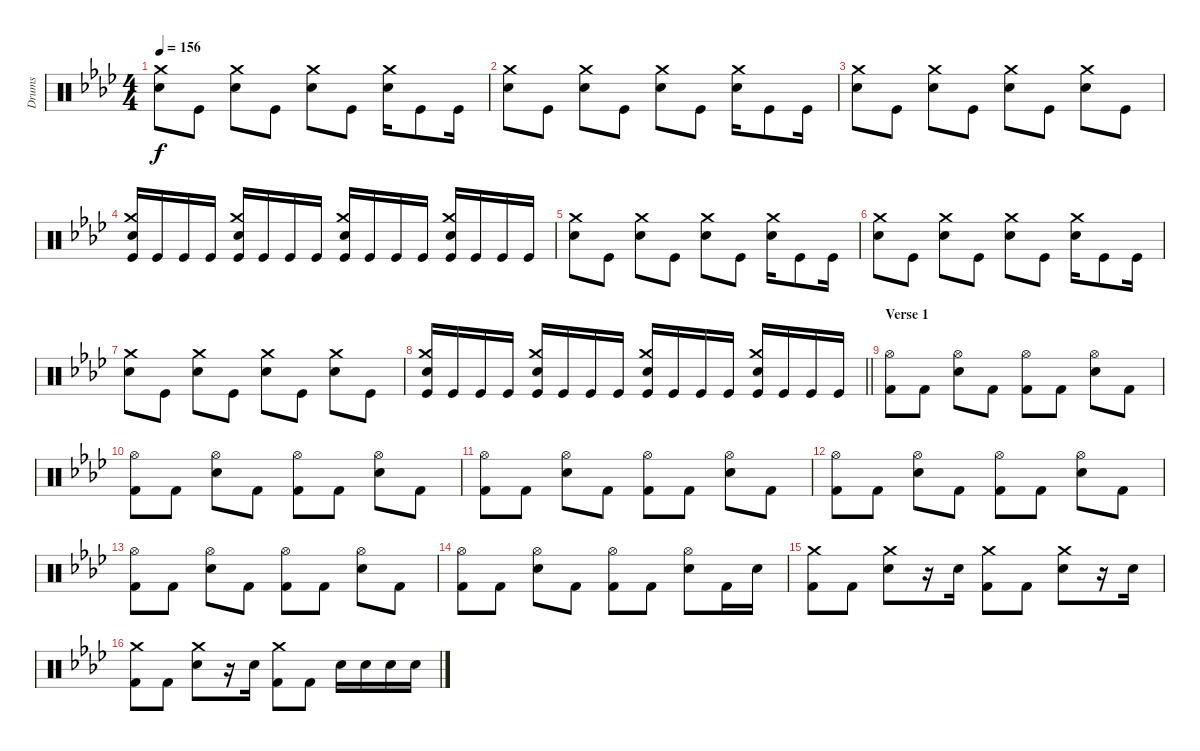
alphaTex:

\track ("Drums" "Drums") {instrument percussion}
\staff {score}
\articulation defaults
\ts (4 4)
\tempo 156
\clef neutral
\ks fminor
("Electric Snare (hit)" "Crash medium (hit)").8{dy f} "Kick (hit)".8 ("Electric Snare (hit)" "Crash medium (hit)").8 "Kick (hit)".8 ("Electric Snare (hit)" "Crash medium (hit)").8 "Kick (hit)".8 ("Electric Snare (hit)" "Crash medium (hit)").16 "Kick (hit)".8 "Kick (hit)".16 |
("Electric Snare (hit)" "Crash medium (hit)").8 "Kick (hit)".8 ("Electric Snare (hit)" "Crash medium (hit)").8 "Kick (hit)".8 ("Electric Snare (hit)" "Crash medium (hit)").8 "Kick (hit)".8 ("Electric Snare (hit)" "Crash medium (hit)").16 "Kick (hit)".8 "Kick (hit)".16 |
("Electric Snare (hit)" "Crash medium (hit)").8 "Kick (hit)".8 ("Electric Snare (hit)" "Crash medium (hit)").8 "Kick (hit)".8 ("Electric Snare (hit)" "Crash medium (hit)").8 "Kick (hit)".8 ("Electric Snare (hit)" "Crash medium (hit)").8 "Kick (hit)".8 |
("Kick (hit)" "Electric Snare (hit)" "Crash medium (hit)").16 "Kick (hit)".16 "Kick (hit)".16 "Kick (hit)".16 ("Kick (hit)" "Electric Snare (hit)" "Crash medium (hit)").16 "Kick (hit)".16 "Kick (hit)".16 "Kick (hit)".16 ("Kick (hit)" "Electric Snare (hit)" "Crash medium (hit)").16 "Kick (hit)".16 "Kick (hit)".16 "Kick (hit)".16 ("Kick (hit)" "Electric Snare (hit)" "Crash medium (hit)").16 "Kick (hit)".16 "Kick (hit)".16 "Kick (hit)".16 |
("Electric Snare (hit)" "Crash medium (hit)").8 "Kick (hit)".8 ("Electric Snare (hit)" "Crash medium (hit)").8 "Kick (hit)".8 ("Electric Snare (hit)" "Crash medium (hit)").8 "Kick (hit)".8 ("Electric Snare (hit)" "Crash medium (hit)").16 "Kick (hit)".8 "Kick (hit)".16 |
("Electric Snare (hit)" "Crash medium (hit)").8 "Kick (hit)".8 ("Electric Snare (hit)" "Crash medium (hit)").8 "Kick (hit)".8 ("Electric Snare (hit)" "Crash medium (hit)").8 "Kick (hit)".8 ("Electric Snare (hit)" "Crash medium (hit)").16 "Kick (hit)".8 "Kick (hit)".16 |
("Electric Snare (hit)" "Crash medium (hit)").8 "Kick (hit)".8 ("Electric Snare (hit)" "Crash medium (hit)").8 "Kick (hit)".8 ("Electric Snare (hit)" "Crash medium (hit)").8 "Kick (hit)".8 ("Electric Snare (hit)" "Crash medium (hit)").8 "Kick (hit)".8 |
\barLineRight lightlight
("Kick (hit)" "Electric Snare (hit)" "Crash medium (hit)").16 "Kick (hit)".16 "Kick (hit)".16 "Kick (hit)".16 ("Kick (hit)" "Electric Snare (hit)" "Crash medium (hit)").16 "Kick (hit)".16 "Kick (hit)".16 "Kick (hit)".16 ("Kick (hit)" "Electric Snare (hit)" "Crash medium (hit)").16 "Kick (hit)".16 "Kick (hit)".16 "Kick (hit)".16 ("Kick (hit)" "Electric Snare (hit)" "Crash medium (hit)").16 "Kick (hit)".16 "Kick (hit)".16 "Kick (hit)".16 |
\section ("" "Verse 1")
("Kick (hit) 2" "Hi-Hat (open)").8 "Kick (hit) 2".8 ("Electric Snare (hit)" "Hi-Hat (open)").8 "Kick (hit) 2".8 ("Kick (hit) 2" "Hi-Hat (open)").8 "Kick (hit) 2".8 ("Electric Snare (hit)" "Hi-Hat (open)").8 "Kick (hit) 2".8 |
("Kick (hit) 2" "Hi-Hat (open)").8 "Kick (hit) 2".8 ("Electric Snare (hit)" "Hi-Hat (open)").8 "Kick (hit) 2".8 ("Kick (hit) 2" "Hi-Hat (open)").8 "Kick (hit) 2".8 ("Electric Snare (hit)" "Hi-Hat (open)").8 "Kick (hit) 2".8 |
("Kick (hit) 2" "Hi-Hat (open)").8 "Kick (hit) 2".8 ("Electric Snare (hit)" "Hi-Hat (open)").8 "Kick (hit) 2".8 ("Kick (hit) 2" "Hi-Hat (open)").8 "Kick (hit) 2".8 ("Electric Snare (hit)" "Hi-Hat (open)").8 "Kick (hit) 2".8 |
("Kick (hit) 2" "Hi-Hat (open)").8 "Kick (hit) 2".8 ("Electric Snare (hit)" "Hi-Hat (open)").8 "Kick (hit) 2".8 ("Kick (hit) 2" "Hi-Hat (open)").8 "Kick (hit) 2".8 ("Electric Snare (hit)" "Hi-Hat (open)").8 "Kick (hit) 2".8 |
("Kick (hit) 2" "Hi-Hat (open)").8 "Kick (hit) 2".8 ("Electric Snare (hit)" "Hi-Hat (open)").8 "Kick (hit) 2".8 ("Kick (hit) 2" "Hi-Hat (open)").8 "Kick (hit) 2".8 ("Electric Snare (hit)" "Hi-Hat (open)").8 "Kick (hit) 2".8 |
("Kick (hit) 2" "Hi-Hat (open)").8 "Kick (hit) 2".8 ("Electric Snare (hit)" "Hi-Hat (open)").8 "Kick (hit) 2".8 ("Kick (hit) 2" "Hi-Hat (open)").8 "Kick (hit) 2".8 ("Electric Snare (hit)" "Hi-Hat (open)").8 "Kick (hit) 2".16 "Electric Snare (hit)".16 |
("Kick (hit) 2" "Crash medium (hit)").8 "Kick (hit) 2".8 ("Electric Snare (hit)" "Crash medium (hit)").8 r.16 "Electric Snare (hit)".16 ("Kick (hit) 2" "Crash medium (hit)").8 "Kick (hit) 2".8 ("Electric Snare (hit)" "Crash medium (hit)").8 r.16 "Electric Snare (hit)".16 |
("Kick (hit) 2" "Crash medium (hit)").8 "Kick (hit) 2".8 ("Electric Snare (hit)" "Crash medium (hit)").8 r.16 "Electric Snare (hit)".16 ("Kick (hit) 2" "Crash medium (hit)").8 "Kick (hit) 2".8 "Electric Snare (hit)".16 "Electric Snare (hit)".16 "Electric Snare (hit)".16 "Electric Snare (hit)".16
